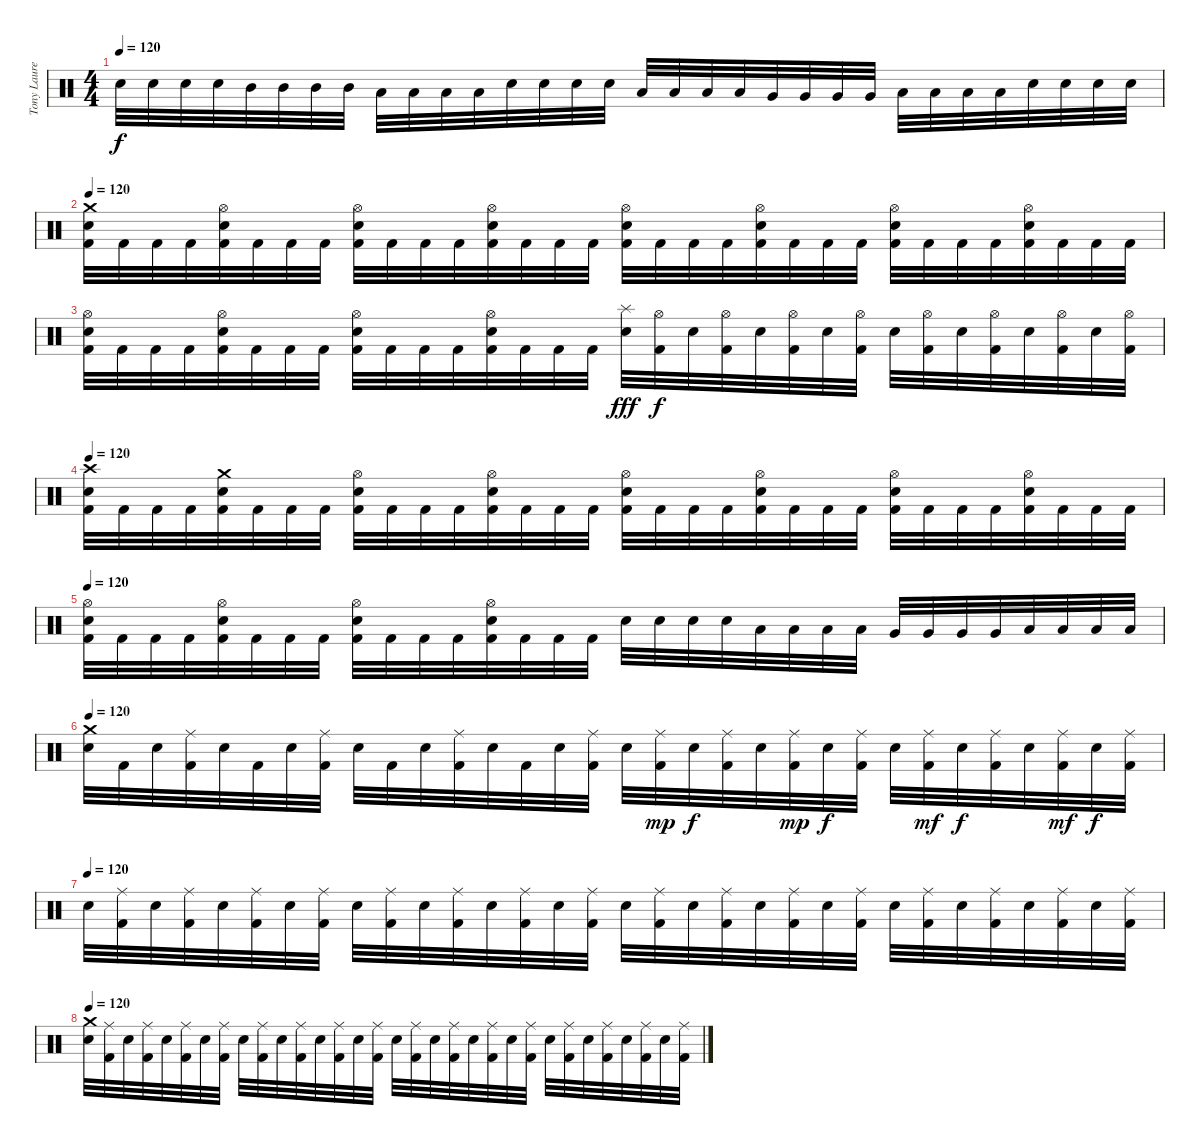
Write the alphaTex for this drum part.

\track ("Tony Laureano" "Tony Laure") {instrument percussion}
\staff {score}
\articulation defaults
\ts (4 4)
\tempo 120
\clef neutral
\ks c "Electric Snare (hit)".32{dy f} "Electric Snare (hit)".32 "Electric Snare (hit)".32 "Electric Snare (hit)".32 "Mid Tom (hit)".32 "Mid Tom (hit)".32 "Mid Tom (hit)".32 "Mid Tom (hit)".32 "Low Tom (hit)".32 "Low Tom (hit)".32 "Low Tom (hit)".32 "Low Tom (hit)".32 "Electric Snare (hit)".32 "Electric Snare (hit)".32 "Electric Snare (hit)".32 "Electric Snare (hit)".32 "Low Tom (hit)".32 "Low Tom (hit)".32 "Low Tom (hit)".32 "Low Tom (hit)".32 "Very Low Tom (hit)".32 "Very Low Tom (hit)".32 "Very Low Tom (hit)".32 "Very Low Tom (hit)".32 "Low Floor Tom (hit)".32 "Low Floor Tom (hit)".32 "Low Floor Tom (hit)".32 "Low Floor Tom (hit)".32 "Electric Snare (hit)".32 "Electric Snare (hit)".32 "Electric Snare (hit)".32 "Electric Snare (hit)".32
|
\tempo 120
("Crash medium (hit)" "Electric Snare (hit)" "Kick (hit) 2").32 "Kick (hit) 2".32 "Kick (hit) 2".32 "Kick (hit) 2".32 ("Hi-Hat (open)" "Electric Snare (hit)" "Kick (hit) 2").32 "Kick (hit) 2".32 "Kick (hit) 2".32 "Kick (hit) 2".32 ("Hi-Hat (open)" "Electric Snare (hit)" "Kick (hit) 2").32 "Kick (hit) 2".32 "Kick (hit) 2".32 "Kick (hit) 2".32 ("Hi-Hat (open)" "Electric Snare (hit)" "Kick (hit) 2").32 "Kick (hit) 2".32 "Kick (hit) 2".32 "Kick (hit) 2".32 ("Hi-Hat (open)" "Electric Snare (hit)" "Kick (hit) 2").32 "Kick (hit) 2".32 "Kick (hit) 2".32 "Kick (hit) 2".32 ("Hi-Hat (open)" "Electric Snare (hit)" "Kick (hit) 2").32 "Kick (hit) 2".32 "Kick (hit) 2".32 "Kick (hit) 2".32 ("Hi-Hat (open)" "Electric Snare (hit)" "Kick (hit) 2").32 "Kick (hit) 2".32 "Kick (hit) 2".32 "Kick (hit) 2".32 ("Hi-Hat (open)" "Electric Snare (hit)" "Kick (hit) 2").32 "Kick (hit) 2".32 "Kick (hit) 2".32 "Kick (hit) 2".32 |
("Hi-Hat (open)" "Electric Snare (hit)" "Kick (hit) 2").32 "Kick (hit) 2".32 "Kick (hit) 2".32 "Kick (hit) 2".32 ("Hi-Hat (open)" "Electric Snare (hit)" "Kick (hit) 2").32 "Kick (hit) 2".32 "Kick (hit) 2".32 "Kick (hit) 2".32 ("Hi-Hat (open)" "Electric Snare (hit)" "Kick (hit) 2").32 "Kick (hit) 2".32 "Kick (hit) 2".32 "Kick (hit) 2".32 ("Hi-Hat (open)" "Electric Snare (hit)" "Kick (hit) 2").32 "Kick (hit) 2".32 "Kick (hit) 2".32 "Kick (hit) 2".32 ("Splash (hit)" "Electric Snare (hit)").32{dy fff} ("Hi-Hat (open)" "Kick (hit) 2").32{dy f} "Electric Snare (hit)".32 ("Hi-Hat (open)" "Kick (hit) 2").32 "Electric Snare (hit)".32 ("Hi-Hat (open)" "Kick (hit) 2").32 "Electric Snare (hit)".32 ("Hi-Hat (open)" "Kick (hit) 2").32 "Electric Snare (hit)".32 ("Hi-Hat (open)" "Kick (hit) 2").32 "Electric Snare (hit)".32 ("Hi-Hat (open)" "Kick (hit) 2").32 "Electric Snare (hit)".32 ("Hi-Hat (open)" "Kick (hit) 2").32 "Electric Snare (hit)".32 ("Hi-Hat (open)" "Kick (hit) 2").32 |
\tempo 120
("Crash high (hit)" "Electric Snare (hit)" "Kick (hit) 2").32 "Kick (hit) 2".32 "Kick (hit) 2".32 "Kick (hit) 2".32 ("Crash medium (hit)" "Electric Snare (hit)" "Kick (hit) 2").32 "Kick (hit) 2".32 "Kick (hit) 2".32 "Kick (hit) 2".32 ("Hi-Hat (open)" "Electric Snare (hit)" "Kick (hit) 2").32 "Kick (hit) 2".32 "Kick (hit) 2".32 "Kick (hit) 2".32 ("Hi-Hat (open)" "Electric Snare (hit)" "Kick (hit) 2").32 "Kick (hit) 2".32 "Kick (hit) 2".32 "Kick (hit) 2".32 ("Hi-Hat (open)" "Electric Snare (hit)" "Kick (hit) 2").32 "Kick (hit) 2".32 "Kick (hit) 2".32 "Kick (hit) 2".32 ("Hi-Hat (open)" "Electric Snare (hit)" "Kick (hit) 2").32 "Kick (hit) 2".32 "Kick (hit) 2".32 "Kick (hit) 2".32 ("Hi-Hat (open)" "Electric Snare (hit)" "Kick (hit) 2").32 "Kick (hit) 2".32 "Kick (hit) 2".32 "Kick (hit) 2".32 ("Hi-Hat (open)" "Electric Snare (hit)" "Kick (hit) 2").32 "Kick (hit) 2".32 "Kick (hit) 2".32 "Kick (hit) 2".32 |
\tempo 120
("Hi-Hat (open)" "Electric Snare (hit)" "Kick (hit) 2").32 "Kick (hit) 2".32 "Kick (hit) 2".32 "Kick (hit) 2".32 ("Hi-Hat (open)" "Electric Snare (hit)" "Kick (hit) 2").32 "Kick (hit) 2".32 "Kick (hit) 2".32 "Kick (hit) 2".32 ("Hi-Hat (open)" "Electric Snare (hit)" "Kick (hit) 2").32 "Kick (hit) 2".32 "Kick (hit) 2".32 "Kick (hit) 2".32 ("Hi-Hat (open)" "Electric Snare (hit)" "Kick (hit) 2").32 "Kick (hit) 2".32 "Kick (hit) 2".32 "Kick (hit) 2".32 "Electric Snare (hit)".32 "Electric Snare (hit)".32 "Electric Snare (hit)".32 "Electric Snare (hit)".32 "Low Tom (hit)".32 "Low Tom (hit)".32 "Low Tom (hit)".32 "Low Tom (hit)".32 "Very Low Tom (hit)".32 "Very Low Tom (hit)".32 "Very Low Tom (hit)".32 "Very Low Tom (hit)".32 "Low Floor Tom (hit)".32 "Low Floor Tom (hit)".32 "Low Floor Tom (hit)".32 "Low Floor Tom (hit)".32 |
\tempo 120
("Crash medium (hit)" "Electric Snare (hit)").32 "Kick (hit) 2".32 "Electric Snare (hit)".32 ("Ride (middle)" "Kick (hit) 2").32 "Electric Snare (hit)".32 "Kick (hit) 2".32 "Electric Snare (hit)".32 ("Ride (middle)" "Kick (hit) 2").32 "Electric Snare (hit)".32 "Kick (hit) 2".32 "Electric Snare (hit)".32 ("Ride (middle)" "Kick (hit) 2").32 "Electric Snare (hit)".32 "Kick (hit) 2".32 "Electric Snare (hit)".32 ("Ride (middle)" "Kick (hit) 2").32 "Electric Snare (hit)".32 ("Ride (middle)" "Kick (hit) 2").32{dy mp} "Electric Snare (hit)".32{dy f} ("Ride (middle)" "Kick (hit) 2").32 "Electric Snare (hit)".32 ("Ride (middle)" "Kick (hit) 2").32{dy mp} "Electric Snare (hit)".32{dy f} ("Ride (middle)" "Kick (hit) 2").32 "Electric Snare (hit)".32 ("Ride (middle)" "Kick (hit) 2").32{dy mf} "Electric Snare (hit)".32{dy f} ("Ride (middle)" "Kick (hit) 2").32 "Electric Snare (hit)".32 ("Ride (middle)" "Kick (hit) 2").32{dy mf} "Electric Snare (hit)".32{dy f} ("Ride (middle)" "Kick (hit) 2").32 |
\tempo (120)
"Electric Snare (hit)".32 ("Ride (middle)" "Kick (hit) 2").32 "Electric Snare (hit)".32 ("Ride (middle)" "Kick (hit) 2").32 "Electric Snare (hit)".32 ("Ride (middle)" "Kick (hit) 2").32 "Electric Snare (hit)".32 ("Ride (middle)" "Kick (hit) 2").32 "Electric Snare (hit)".32 ("Ride (middle)" "Kick (hit) 2").32 "Electric Snare (hit)".32 ("Ride (middle)" "Kick (hit) 2").32 "Electric Snare (hit)".32 ("Ride (middle)" "Kick (hit) 2").32 "Electric Snare (hit)".32 ("Ride (middle)" "Kick (hit) 2").32 "Electric Snare (hit)".32 ("Ride (middle)" "Kick (hit) 2").32 "Electric Snare (hit)".32 ("Ride (middle)" "Kick (hit) 2").32 "Electric Snare (hit)".32 ("Ride (middle)" "Kick (hit) 2").32 "Electric Snare (hit)".32 ("Ride (middle)" "Kick (hit) 2").32 "Electric Snare (hit)".32 ("Ride (middle)" "Kick (hit) 2").32 "Electric Snare (hit)".32 ("Ride (middle)" "Kick (hit) 2").32 "Electric Snare (hit)".32 ("Ride (middle)" "Kick (hit) 2").32 "Electric Snare (hit)".32 ("Ride (middle)" "Kick (hit) 2").32 |
\tempo 120
("Crash medium (hit)" "Electric Snare (hit)").32 ("Ride (middle)" "Kick (hit) 2").32 "Electric Snare (hit)".32 ("Ride (middle)" "Kick (hit) 2").32 "Electric Snare (hit)".32 ("Ride (middle)" "Kick (hit) 2").32 "Electric Snare (hit)".32 ("Ride (middle)" "Kick (hit) 2").32 "Electric Snare (hit)".32 ("Ride (middle)" "Kick (hit) 2").32 "Electric Snare (hit)".32 ("Ride (middle)" "Kick (hit) 2").32 "Electric Snare (hit)".32 ("Ride (middle)" "Kick (hit) 2").32 "Electric Snare (hit)".32 ("Ride (middle)" "Kick (hit) 2").32 "Electric Snare (hit)".32 ("Ride (middle)" "Kick (hit) 2").32 "Electric Snare (hit)".32 ("Ride (middle)" "Kick (hit) 2").32 "Electric Snare (hit)".32 ("Ride (middle)" "Kick (hit) 2").32 "Electric Snare (hit)".32 ("Ride (middle)" "Kick (hit) 2").32 "Electric Snare (hit)".32 ("Ride (middle)" "Kick (hit) 2").32 "Electric Snare (hit)".32 ("Ride (middle)" "Kick (hit) 2").32 "Electric Snare (hit)".32 ("Ride (middle)" "Kick (hit) 2").32 "Electric Snare (hit)".32 ("Ride (middle)" "Kick (hit) 2").32
